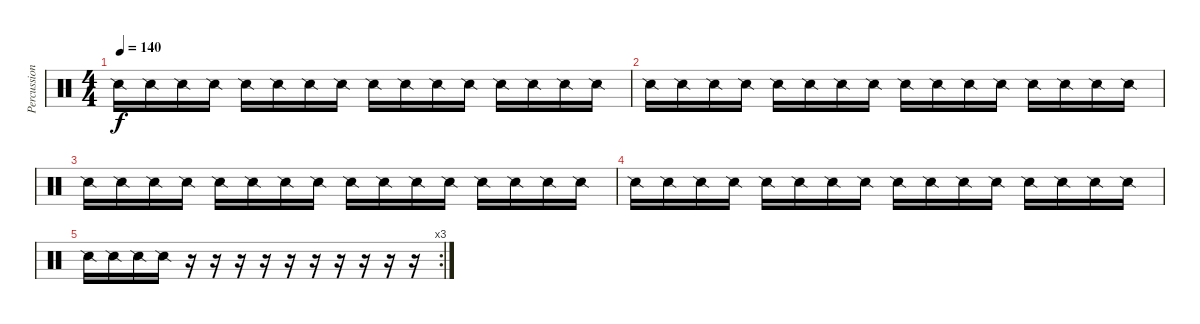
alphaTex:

\track ("Percussion" "Percussion") {instrument percussion}
\staff {score}
\articulation defaults
\ts (4 4)
\tempo 140
\clef neutral
\ks c "Snare (side stick) 2".16{dy f} "Snare (side stick) 2".16 "Snare (side stick) 2".16 "Snare (side stick) 2".16 "Snare (side stick) 2".16 "Snare (side stick) 2".16 "Snare (side stick) 2".16 "Snare (side stick) 2".16 "Snare (side stick) 2".16 "Snare (side stick) 2".16 "Snare (side stick) 2".16 "Snare (side stick) 2".16 "Snare (side stick) 2".16 "Snare (side stick) 2".16 "Snare (side stick) 2".16 "Snare (side stick) 2".16
|
"Snare (side stick) 2".16 "Snare (side stick) 2".16 "Snare (side stick) 2".16 "Snare (side stick) 2".16 "Snare (side stick) 2".16 "Snare (side stick) 2".16 "Snare (side stick) 2".16 "Snare (side stick) 2".16 "Snare (side stick) 2".16 "Snare (side stick) 2".16 "Snare (side stick) 2".16 "Snare (side stick) 2".16 "Snare (side stick) 2".16 "Snare (side stick) 2".16 "Snare (side stick) 2".16 "Snare (side stick) 2".16 |
"Snare (side stick) 2".16 "Snare (side stick) 2".16 "Snare (side stick) 2".16 "Snare (side stick) 2".16 "Snare (side stick) 2".16 "Snare (side stick) 2".16 "Snare (side stick) 2".16 "Snare (side stick) 2".16 "Snare (side stick) 2".16 "Snare (side stick) 2".16 "Snare (side stick) 2".16 "Snare (side stick) 2".16 "Snare (side stick) 2".16 "Snare (side stick) 2".16 "Snare (side stick) 2".16 "Snare (side stick) 2".16 |
"Snare (side stick) 2".16 "Snare (side stick) 2".16 "Snare (side stick) 2".16 "Snare (side stick) 2".16 "Snare (side stick) 2".16 "Snare (side stick) 2".16 "Snare (side stick) 2".16 "Snare (side stick) 2".16 "Snare (side stick) 2".16 "Snare (side stick) 2".16 "Snare (side stick) 2".16 "Snare (side stick) 2".16 "Snare (side stick) 2".16 "Snare (side stick) 2".16 "Snare (side stick) 2".16 "Snare (side stick) 2".16 |
\rc 3 "Snare (side stick) 2".16 "Snare (side stick) 2".16 "Snare (side stick) 2".16 "Snare (side stick) 2".16
r.16 r.16 r.16 r.16 r.16 r.16 r.16 r.16 r.16 r.16
